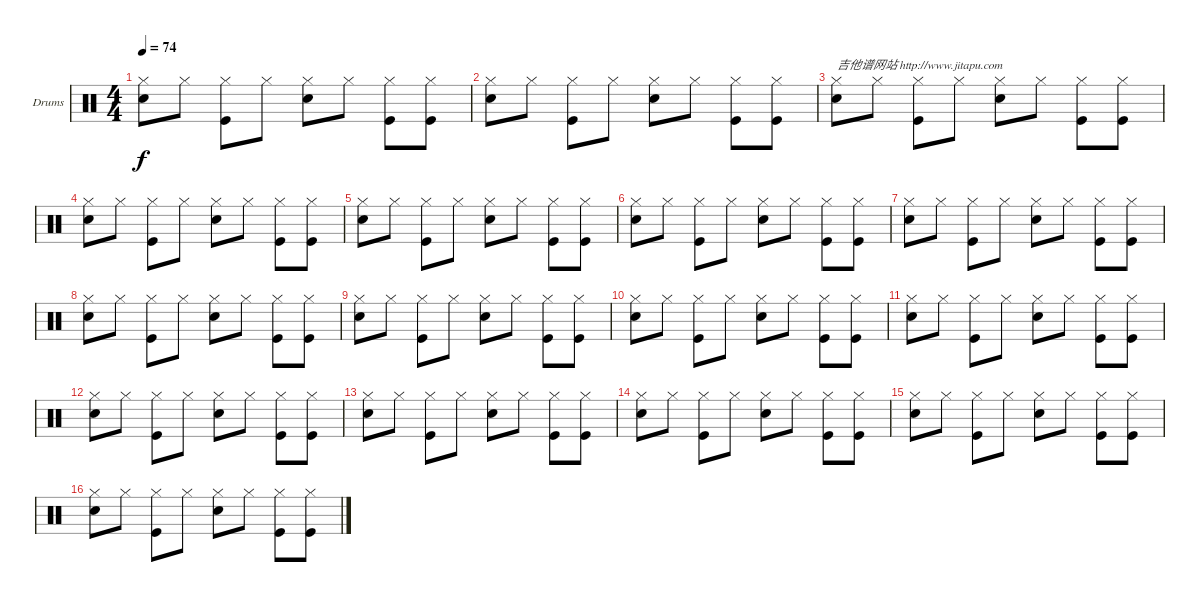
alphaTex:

\bracketExtendMode groupsimilarinstruments
\firstSystemTrackNameOrientation horizontal
\otherSystemsTrackNameOrientation horizontal
\track ("Drumkit" "Drums") {instrument percussion}
\staff {score}
\articulation defaults
\ts (4 4)
\tempo 74
\clef neutral
\ks c
("Hi-Hat (closed)" "Snare (hit) 2").8{dy f} "Hi-Hat (closed)".8 ("Hi-Hat (closed)" "Kick (hit)").8 "Hi-Hat (closed)".8 ("Hi-Hat (closed)" "Snare (hit) 2").8 "Hi-Hat (closed)".8 ("Hi-Hat (closed)" "Kick (hit)").8 ("Hi-Hat (closed)" "Kick (hit)").8 |
("Hi-Hat (closed)" "Snare (hit) 2").8 "Hi-Hat (closed)".8 ("Hi-Hat (closed)" "Kick (hit)").8 "Hi-Hat (closed)".8 ("Hi-Hat (closed)" "Snare (hit) 2").8 "Hi-Hat (closed)".8 ("Hi-Hat (closed)" "Kick (hit)").8 ("Hi-Hat (closed)" "Kick (hit)").8 |
("Hi-Hat (closed)" "Snare (hit) 2").8{txt "吉他谱网站 http://www.jitapu.com"} "Hi-Hat (closed)".8 ("Hi-Hat (closed)" "Kick (hit)").8 "Hi-Hat (closed)".8 ("Hi-Hat (closed)" "Snare (hit) 2").8 "Hi-Hat (closed)".8 ("Hi-Hat (closed)" "Kick (hit)").8 ("Hi-Hat (closed)" "Kick (hit)").8 |
("Hi-Hat (closed)" "Snare (hit) 2").8 "Hi-Hat (closed)".8 ("Hi-Hat (closed)" "Kick (hit)").8 "Hi-Hat (closed)".8 ("Hi-Hat (closed)" "Snare (hit) 2").8 "Hi-Hat (closed)".8 ("Hi-Hat (closed)" "Kick (hit)").8 ("Hi-Hat (closed)" "Kick (hit)").8 |
("Hi-Hat (closed)" "Snare (hit) 2").8 "Hi-Hat (closed)".8 ("Hi-Hat (closed)" "Kick (hit)").8 "Hi-Hat (closed)".8 ("Hi-Hat (closed)" "Snare (hit) 2").8 "Hi-Hat (closed)".8 ("Hi-Hat (closed)" "Kick (hit)").8 ("Hi-Hat (closed)" "Kick (hit)").8 |
("Hi-Hat (closed)" "Snare (hit) 2").8 "Hi-Hat (closed)".8 ("Hi-Hat (closed)" "Kick (hit)").8 "Hi-Hat (closed)".8 ("Hi-Hat (closed)" "Snare (hit) 2").8 "Hi-Hat (closed)".8 ("Hi-Hat (closed)" "Kick (hit)").8 ("Hi-Hat (closed)" "Kick (hit)").8 |
("Hi-Hat (closed)" "Snare (hit) 2").8 "Hi-Hat (closed)".8 ("Hi-Hat (closed)" "Kick (hit)").8 "Hi-Hat (closed)".8 ("Hi-Hat (closed)" "Snare (hit) 2").8 "Hi-Hat (closed)".8 ("Hi-Hat (closed)" "Kick (hit)").8 ("Hi-Hat (closed)" "Kick (hit)").8 |
("Hi-Hat (closed)" "Snare (hit) 2").8 "Hi-Hat (closed)".8 ("Hi-Hat (closed)" "Kick (hit)").8 "Hi-Hat (closed)".8 ("Hi-Hat (closed)" "Snare (hit) 2").8 "Hi-Hat (closed)".8 ("Hi-Hat (closed)" "Kick (hit)").8 ("Hi-Hat (closed)" "Kick (hit)").8 |
("Hi-Hat (closed)" "Snare (hit) 2").8 "Hi-Hat (closed)".8 ("Hi-Hat (closed)" "Kick (hit)").8 "Hi-Hat (closed)".8 ("Hi-Hat (closed)" "Snare (hit) 2").8 "Hi-Hat (closed)".8 ("Hi-Hat (closed)" "Kick (hit)").8 ("Hi-Hat (closed)" "Kick (hit)").8 |
("Hi-Hat (closed)" "Snare (hit) 2").8 "Hi-Hat (closed)".8 ("Hi-Hat (closed)" "Kick (hit)").8 "Hi-Hat (closed)".8 ("Hi-Hat (closed)" "Snare (hit) 2").8 "Hi-Hat (closed)".8 ("Hi-Hat (closed)" "Kick (hit)").8 ("Hi-Hat (closed)" "Kick (hit)").8 |
("Hi-Hat (closed)" "Snare (hit) 2").8 "Hi-Hat (closed)".8 ("Hi-Hat (closed)" "Kick (hit)").8 "Hi-Hat (closed)".8 ("Hi-Hat (closed)" "Snare (hit) 2").8 "Hi-Hat (closed)".8 ("Hi-Hat (closed)" "Kick (hit)").8 ("Hi-Hat (closed)" "Kick (hit)").8 |
("Hi-Hat (closed)" "Snare (hit) 2").8 "Hi-Hat (closed)".8 ("Hi-Hat (closed)" "Kick (hit)").8 "Hi-Hat (closed)".8 ("Hi-Hat (closed)" "Snare (hit) 2").8 "Hi-Hat (closed)".8 ("Hi-Hat (closed)" "Kick (hit)").8 ("Hi-Hat (closed)" "Kick (hit)").8 |
("Hi-Hat (closed)" "Snare (hit) 2").8 "Hi-Hat (closed)".8 ("Hi-Hat (closed)" "Kick (hit)").8 "Hi-Hat (closed)".8 ("Hi-Hat (closed)" "Snare (hit) 2").8 "Hi-Hat (closed)".8 ("Hi-Hat (closed)" "Kick (hit)").8 ("Hi-Hat (closed)" "Kick (hit)").8 |
("Hi-Hat (closed)" "Snare (hit) 2").8 "Hi-Hat (closed)".8 ("Hi-Hat (closed)" "Kick (hit)").8 "Hi-Hat (closed)".8 ("Hi-Hat (closed)" "Snare (hit) 2").8 "Hi-Hat (closed)".8 ("Hi-Hat (closed)" "Kick (hit)").8 ("Hi-Hat (closed)" "Kick (hit)").8 |
("Hi-Hat (closed)" "Snare (hit) 2").8 "Hi-Hat (closed)".8 ("Hi-Hat (closed)" "Kick (hit)").8 "Hi-Hat (closed)".8 ("Hi-Hat (closed)" "Snare (hit) 2").8 "Hi-Hat (closed)".8 ("Hi-Hat (closed)" "Kick (hit)").8 ("Hi-Hat (closed)" "Kick (hit)").8 |
("Hi-Hat (closed)" "Snare (hit) 2").8 "Hi-Hat (closed)".8 ("Hi-Hat (closed)" "Kick (hit)").8 "Hi-Hat (closed)".8 ("Hi-Hat (closed)" "Snare (hit) 2").8 "Hi-Hat (closed)".8 ("Hi-Hat (closed)" "Kick (hit)").8 ("Hi-Hat (closed)" "Kick (hit)").8
